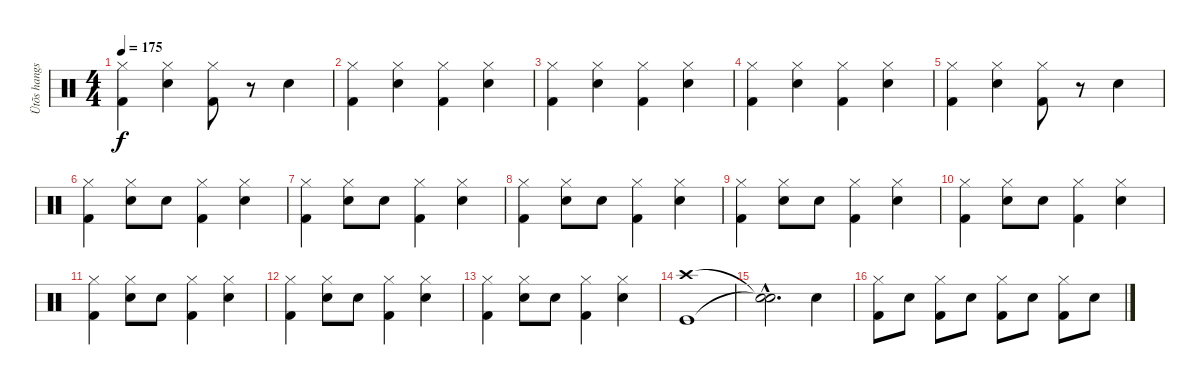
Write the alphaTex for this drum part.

\track ("Ütõs hangszer" "Ütõs hangs") {instrument percussion}
\staff {score}
\articulation defaults
\ts (4 4)
\tempo 175
\clef neutral
\ks c
("Hi-Hat (closed)" "Kick (hit) 2").4{dy f} ("Hi-Hat (closed)" "Electric Snare (hit)").4 ("Hi-Hat (closed)" "Kick (hit) 2").8 r.8 "Electric Snare (hit)".4 |
("Hi-Hat (closed)" "Kick (hit) 2").4 ("Hi-Hat (closed)" "Electric Snare (hit)").4 ("Hi-Hat (closed)" "Kick (hit) 2").4 ("Hi-Hat (closed)" "Electric Snare (hit)").4 |
("Hi-Hat (closed)" "Kick (hit) 2").4 ("Hi-Hat (closed)" "Electric Snare (hit)").4 ("Hi-Hat (closed)" "Kick (hit) 2").4 ("Hi-Hat (closed)" "Electric Snare (hit)").4 |
("Hi-Hat (closed)" "Kick (hit) 2").4 ("Hi-Hat (closed)" "Electric Snare (hit)").4 ("Hi-Hat (closed)" "Kick (hit) 2").4 ("Hi-Hat (closed)" "Electric Snare (hit)").4 |
("Hi-Hat (closed)" "Kick (hit) 2").4 ("Hi-Hat (closed)" "Electric Snare (hit)").4 ("Hi-Hat (closed)" "Kick (hit) 2").8 r.8 "Electric Snare (hit)".4 |
("Hi-Hat (closed)" "Kick (hit) 2").4 ("Hi-Hat (closed)" "Electric Snare (hit)").8 "Electric Snare (hit)".8 ("Hi-Hat (closed)" "Kick (hit) 2").4 ("Hi-Hat (closed)" "Electric Snare (hit)").4 |
("Hi-Hat (closed)" "Kick (hit) 2").4 ("Hi-Hat (closed)" "Electric Snare (hit)").8 "Electric Snare (hit)".8 ("Hi-Hat (closed)" "Kick (hit) 2").4 ("Hi-Hat (closed)" "Electric Snare (hit)").4 |
("Hi-Hat (closed)" "Kick (hit) 2").4 ("Hi-Hat (closed)" "Electric Snare (hit)").8 "Electric Snare (hit)".8 ("Hi-Hat (closed)" "Kick (hit) 2").4 ("Hi-Hat (closed)" "Electric Snare (hit)").4 |
("Hi-Hat (closed)" "Kick (hit) 2").4 ("Hi-Hat (closed)" "Electric Snare (hit)").8 "Electric Snare (hit)".8 ("Hi-Hat (closed)" "Kick (hit) 2").4 ("Hi-Hat (closed)" "Electric Snare (hit)").4 |
("Hi-Hat (closed)" "Kick (hit) 2").4 ("Hi-Hat (closed)" "Electric Snare (hit)").8 "Electric Snare (hit)".8 ("Hi-Hat (closed)" "Kick (hit) 2").4 ("Hi-Hat (closed)" "Electric Snare (hit)").4 |
("Hi-Hat (closed)" "Kick (hit) 2").4 ("Hi-Hat (closed)" "Electric Snare (hit)").8 "Electric Snare (hit)".8 ("Hi-Hat (closed)" "Kick (hit) 2").4 ("Hi-Hat (closed)" "Electric Snare (hit)").4 |
("Hi-Hat (closed)" "Kick (hit) 2").4 ("Hi-Hat (closed)" "Electric Snare (hit)").8 "Electric Snare (hit)".8 ("Hi-Hat (closed)" "Kick (hit) 2").4 ("Hi-Hat (closed)" "Electric Snare (hit)").4 |
("Hi-Hat (closed)" "Kick (hit) 2").4 ("Hi-Hat (closed)" "Electric Snare (hit)").8 "Electric Snare (hit)".8 ("Hi-Hat (closed)" "Kick (hit) 2").4 ("Hi-Hat (closed)" "Electric Snare (hit)").4 |
("Crash high (hit)" "Kick (hit)").1 |
("Snare (hit)"{hac t} "Snare (hit)"{hac t}).2{d} "Electric Snare (hit)".4 |
("Hi-Hat (closed)" "Kick (hit) 2").8 "Electric Snare (hit)".8 ("Hi-Hat (closed)" "Kick (hit) 2").8 "Electric Snare (hit)".8 ("Hi-Hat (closed)" "Kick (hit) 2").8 "Electric Snare (hit)".8 ("Hi-Hat (closed)" "Kick (hit) 2").8 "Electric Snare (hit)".8
